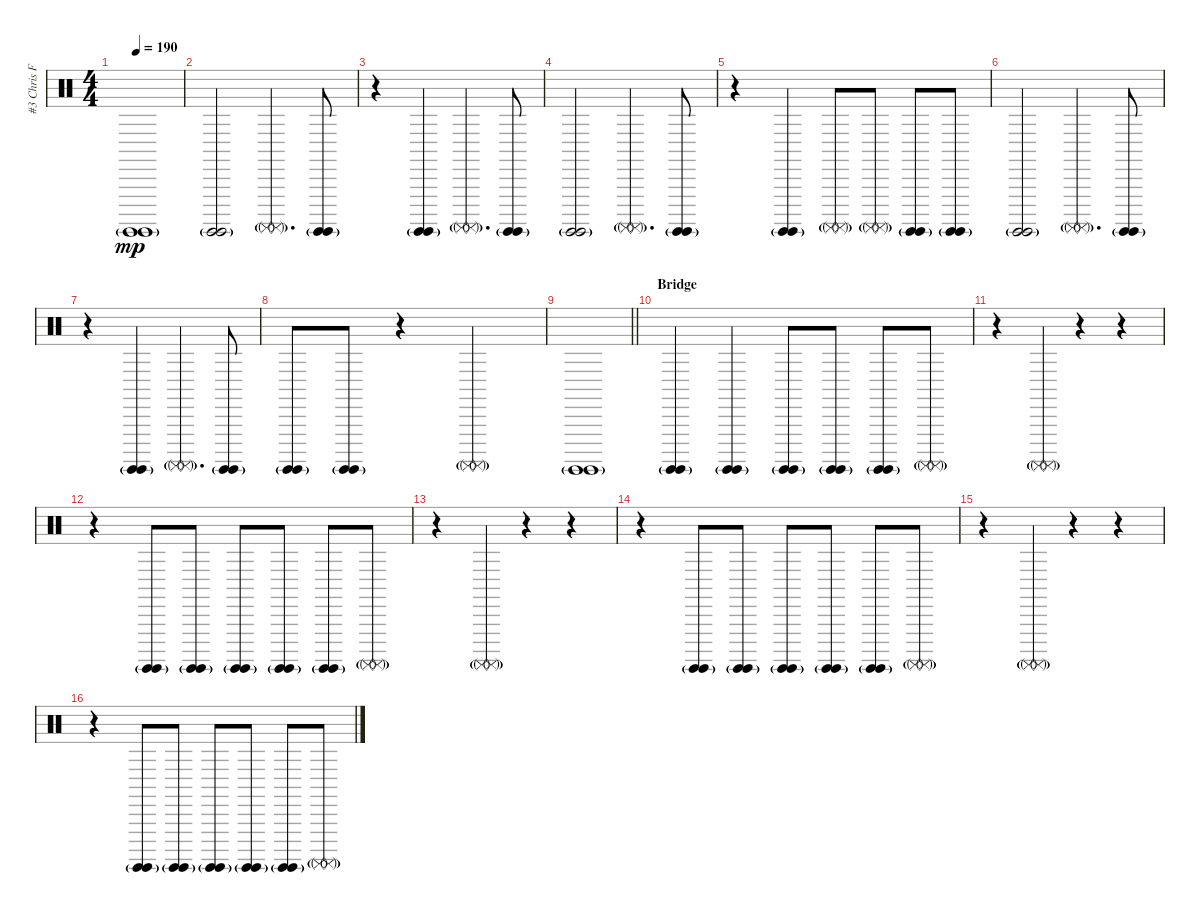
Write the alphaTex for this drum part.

\track ("#3 Chris Fehn" "#3 Chris F") {instrument percussion}
\staff {score}
\articulation defaults
\ts (4 4)
\tempo 190
\clef neutral
\ks c
("Surdo (hit)"{g} "Surdo (hit)"{g}).1{dy mp} |
("Surdo (hit)"{g} "Surdo (hit)"{g}).2 ("Surdo (mute)"{g} "Surdo (mute)"{g}).4{d} ("Surdo (hit)"{g} "Surdo (hit)"{g}).8 |
r.4 ("Surdo (hit)"{g} "Surdo (hit)"{g}).4 ("Surdo (mute)"{g} "Surdo (mute)"{g}).4{d} ("Surdo (hit)"{g} "Surdo (hit)"{g}).8 |
("Surdo (hit)"{g} "Surdo (hit)"{g}).2 ("Surdo (mute)"{g} "Surdo (mute)"{g}).4{d} ("Surdo (hit)"{g} "Surdo (hit)"{g}).8 |
r.4 ("Surdo (hit)"{g} "Surdo (hit)"{g}).4 ("Surdo (mute)"{g} "Surdo (mute)"{g}).8 ("Surdo (mute)"{g} "Surdo (mute)"{g}).8 ("Surdo (hit)"{g} "Surdo (hit)"{g}).8 ("Surdo (hit)"{g} "Surdo (hit)"{g}).8 |
("Surdo (hit)"{g} "Surdo (hit)"{g}).2 ("Surdo (mute)"{g} "Surdo (mute)"{g}).4{d} ("Surdo (hit)"{g} "Surdo (hit)"{g}).8 |
r.4 ("Surdo (hit)"{g} "Surdo (hit)"{g}).4 ("Surdo (mute)"{g} "Surdo (mute)"{g}).4{d} ("Surdo (hit)"{g} "Surdo (hit)"{g}).8 |
("Surdo (hit)"{g} "Surdo (hit)"{g}).8 ("Surdo (hit)"{g} "Surdo (hit)"{g}).8 r.4 ("Surdo (mute)"{g} "Surdo (mute)"{g}).2 |
\barLineRight lightlight
("Surdo (hit)"{g} "Surdo (hit)"{g}).1 |
\section ("" "Bridge")
("Surdo (hit)"{g} "Surdo (hit)"{g}).4 ("Surdo (hit)"{g} "Surdo (hit)"{g}).4 ("Surdo (hit)"{g} "Surdo (hit)"{g}).8 ("Surdo (hit)"{g} "Surdo (hit)"{g}).8 ("Surdo (hit)"{g} "Surdo (hit)"{g}).8 ("Surdo (mute)"{g} "Surdo (mute)"{g}).8 |
r.4 ("Surdo (mute)"{g} "Surdo (mute)"{g}).4 r.4 r.4 |
r.4 ("Surdo (hit)"{g} "Surdo (hit)"{g}).8 ("Surdo (hit)"{g} "Surdo (hit)"{g}).8 ("Surdo (hit)"{g} "Surdo (hit)"{g}).8 ("Surdo (hit)"{g} "Surdo (hit)"{g}).8 ("Surdo (hit)"{g} "Surdo (hit)"{g}).8 ("Surdo (mute)"{g} "Surdo (mute)"{g}).8 |
r.4 ("Surdo (mute)"{g} "Surdo (mute)"{g}).4 r.4 r.4 |
r.4 ("Surdo (hit)"{g} "Surdo (hit)"{g}).8 ("Surdo (hit)"{g} "Surdo (hit)"{g}).8 ("Surdo (hit)"{g} "Surdo (hit)"{g}).8 ("Surdo (hit)"{g} "Surdo (hit)"{g}).8 ("Surdo (hit)"{g} "Surdo (hit)"{g}).8 ("Surdo (mute)"{g} "Surdo (mute)"{g}).8 |
r.4 ("Surdo (mute)"{g} "Surdo (mute)"{g}).4 r.4 r.4 |
r.4 ("Surdo (hit)"{g} "Surdo (hit)"{g}).8 ("Surdo (hit)"{g} "Surdo (hit)"{g}).8 ("Surdo (hit)"{g} "Surdo (hit)"{g}).8 ("Surdo (hit)"{g} "Surdo (hit)"{g}).8 ("Surdo (hit)"{g} "Surdo (hit)"{g}).8 ("Surdo (mute)"{g} "Surdo (mute)"{g}).8
